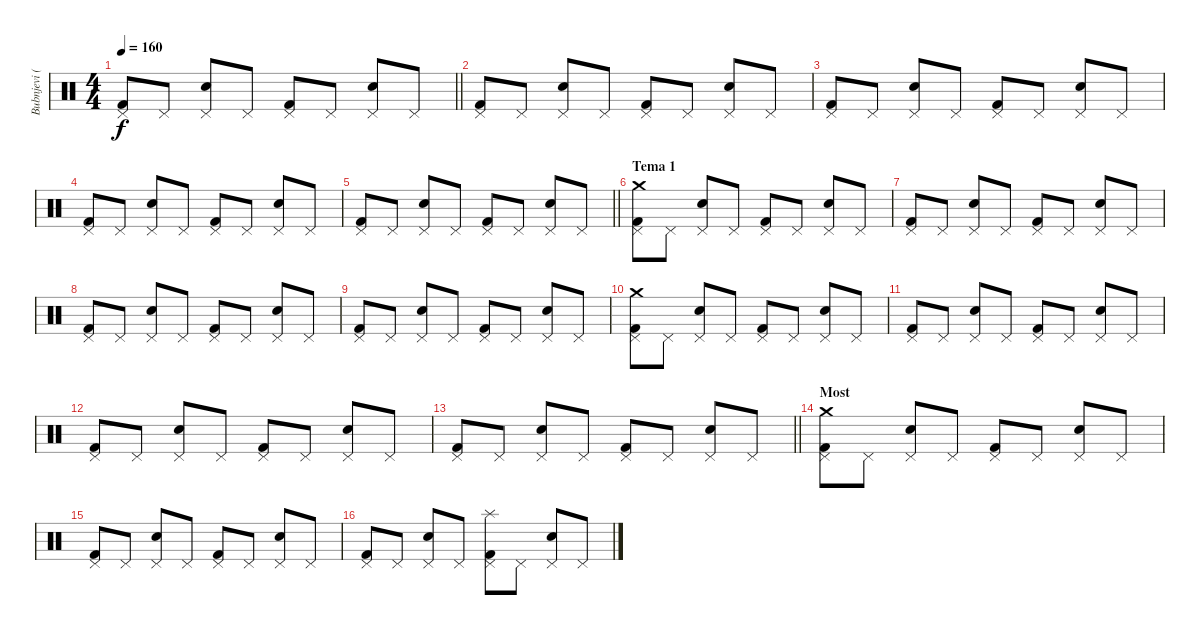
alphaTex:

\track ("Bubnjevi (Nasko Budimic)" "Bubnjevi (") {instrument percussion}
\staff {score}
\articulation defaults
\ts (4 4)
\tempo 160
\clef neutral
\barLineRight lightlight
\ks c
("Pedal Hi-Hat (hit)" "Kick (hit) 2").8{dy f} "Pedal Hi-Hat (hit)".8 ("Pedal Hi-Hat (hit)" "Snare (hit) 2").8 "Pedal Hi-Hat (hit)".8 ("Pedal Hi-Hat (hit)" "Kick (hit) 2").8 "Pedal Hi-Hat (hit)".8 ("Pedal Hi-Hat (hit)" "Snare (hit) 2").8 "Pedal Hi-Hat (hit)".8 |
("Pedal Hi-Hat (hit)" "Kick (hit) 2").8 "Pedal Hi-Hat (hit)".8 ("Pedal Hi-Hat (hit)" "Snare (hit) 2").8 "Pedal Hi-Hat (hit)".8 ("Pedal Hi-Hat (hit)" "Kick (hit) 2").8 "Pedal Hi-Hat (hit)".8 ("Pedal Hi-Hat (hit)" "Snare (hit) 2").8 "Pedal Hi-Hat (hit)".8 |
("Pedal Hi-Hat (hit)" "Kick (hit) 2").8 "Pedal Hi-Hat (hit)".8 ("Pedal Hi-Hat (hit)" "Snare (hit) 2").8 "Pedal Hi-Hat (hit)".8 ("Pedal Hi-Hat (hit)" "Kick (hit) 2").8 "Pedal Hi-Hat (hit)".8 ("Pedal Hi-Hat (hit)" "Snare (hit) 2").8 "Pedal Hi-Hat (hit)".8 |
("Pedal Hi-Hat (hit)" "Kick (hit) 2").8 "Pedal Hi-Hat (hit)".8 ("Pedal Hi-Hat (hit)" "Snare (hit) 2").8 "Pedal Hi-Hat (hit)".8 ("Pedal Hi-Hat (hit)" "Kick (hit) 2").8 "Pedal Hi-Hat (hit)".8 ("Pedal Hi-Hat (hit)" "Snare (hit) 2").8 "Pedal Hi-Hat (hit)".8 |
\barLineRight lightlight
("Pedal Hi-Hat (hit)" "Kick (hit) 2").8 "Pedal Hi-Hat (hit)".8 ("Pedal Hi-Hat (hit)" "Snare (hit) 2").8 "Pedal Hi-Hat (hit)".8 ("Pedal Hi-Hat (hit)" "Kick (hit) 2").8 "Pedal Hi-Hat (hit)".8 ("Pedal Hi-Hat (hit)" "Snare (hit) 2").8 "Pedal Hi-Hat (hit)".8 |
\section ("" "Tema 1")
("Crash medium (hit)" "Pedal Hi-Hat (hit)" "Kick (hit) 2").8 "Pedal Hi-Hat (hit)".8 ("Pedal Hi-Hat (hit)" "Snare (hit) 2").8 "Pedal Hi-Hat (hit)".8 ("Pedal Hi-Hat (hit)" "Kick (hit) 2").8 "Pedal Hi-Hat (hit)".8 ("Pedal Hi-Hat (hit)" "Snare (hit) 2").8 "Pedal Hi-Hat (hit)".8 |
("Pedal Hi-Hat (hit)" "Kick (hit) 2").8 "Pedal Hi-Hat (hit)".8 ("Pedal Hi-Hat (hit)" "Snare (hit) 2").8 "Pedal Hi-Hat (hit)".8 ("Pedal Hi-Hat (hit)" "Kick (hit) 2").8 "Pedal Hi-Hat (hit)".8 ("Pedal Hi-Hat (hit)" "Snare (hit) 2").8 "Pedal Hi-Hat (hit)".8 |
("Pedal Hi-Hat (hit)" "Kick (hit) 2").8 "Pedal Hi-Hat (hit)".8 ("Pedal Hi-Hat (hit)" "Snare (hit) 2").8 "Pedal Hi-Hat (hit)".8 ("Pedal Hi-Hat (hit)" "Kick (hit) 2").8 "Pedal Hi-Hat (hit)".8 ("Pedal Hi-Hat (hit)" "Snare (hit) 2").8 "Pedal Hi-Hat (hit)".8 |
("Pedal Hi-Hat (hit)" "Kick (hit) 2").8 "Pedal Hi-Hat (hit)".8 ("Pedal Hi-Hat (hit)" "Snare (hit) 2").8 "Pedal Hi-Hat (hit)".8 ("Pedal Hi-Hat (hit)" "Kick (hit) 2").8 "Pedal Hi-Hat (hit)".8 ("Pedal Hi-Hat (hit)" "Snare (hit) 2").8 "Pedal Hi-Hat (hit)".8 |
("Crash medium (hit)" "Pedal Hi-Hat (hit)" "Kick (hit) 2").8 "Pedal Hi-Hat (hit)".8 ("Pedal Hi-Hat (hit)" "Snare (hit) 2").8 "Pedal Hi-Hat (hit)".8 ("Pedal Hi-Hat (hit)" "Kick (hit) 2").8 "Pedal Hi-Hat (hit)".8 ("Pedal Hi-Hat (hit)" "Snare (hit) 2").8 "Pedal Hi-Hat (hit)".8 |
("Pedal Hi-Hat (hit)" "Kick (hit) 2").8 "Pedal Hi-Hat (hit)".8 ("Pedal Hi-Hat (hit)" "Snare (hit) 2").8 "Pedal Hi-Hat (hit)".8 ("Pedal Hi-Hat (hit)" "Kick (hit) 2").8 "Pedal Hi-Hat (hit)".8 ("Pedal Hi-Hat (hit)" "Snare (hit) 2").8 "Pedal Hi-Hat (hit)".8 |
("Pedal Hi-Hat (hit)" "Kick (hit) 2").8 "Pedal Hi-Hat (hit)".8 ("Pedal Hi-Hat (hit)" "Snare (hit) 2").8 "Pedal Hi-Hat (hit)".8 ("Pedal Hi-Hat (hit)" "Kick (hit) 2").8 "Pedal Hi-Hat (hit)".8 ("Pedal Hi-Hat (hit)" "Snare (hit) 2").8 "Pedal Hi-Hat (hit)".8 |
\barLineRight lightlight
("Pedal Hi-Hat (hit)" "Kick (hit) 2").8 "Pedal Hi-Hat (hit)".8 ("Pedal Hi-Hat (hit)" "Snare (hit) 2").8 "Pedal Hi-Hat (hit)".8 ("Pedal Hi-Hat (hit)" "Kick (hit) 2").8 "Pedal Hi-Hat (hit)".8 ("Pedal Hi-Hat (hit)" "Snare (hit) 2").8 "Pedal Hi-Hat (hit)".8 |
\section ("" "Most")
("Crash medium (hit)" "Pedal Hi-Hat (hit)" "Kick (hit) 2").8 "Pedal Hi-Hat (hit)".8 ("Pedal Hi-Hat (hit)" "Snare (hit) 2").8 "Pedal Hi-Hat (hit)".8 ("Pedal Hi-Hat (hit)" "Kick (hit) 2").8 "Pedal Hi-Hat (hit)".8 ("Pedal Hi-Hat (hit)" "Snare (hit) 2").8 "Pedal Hi-Hat (hit)".8 |
("Pedal Hi-Hat (hit)" "Kick (hit) 2").8 "Pedal Hi-Hat (hit)".8 ("Pedal Hi-Hat (hit)" "Snare (hit) 2").8 "Pedal Hi-Hat (hit)".8 ("Pedal Hi-Hat (hit)" "Kick (hit) 2").8 "Pedal Hi-Hat (hit)".8 ("Pedal Hi-Hat (hit)" "Snare (hit) 2").8 "Pedal Hi-Hat (hit)".8 |
("Pedal Hi-Hat (hit)" "Kick (hit) 2").8 "Pedal Hi-Hat (hit)".8 ("Pedal Hi-Hat (hit)" "Snare (hit) 2").8 "Pedal Hi-Hat (hit)".8 ("Splash (hit)" "Pedal Hi-Hat (hit)" "Kick (hit) 2").8 "Pedal Hi-Hat (hit)".8 ("Pedal Hi-Hat (hit)" "Snare (hit) 2").8 "Pedal Hi-Hat (hit)".8
